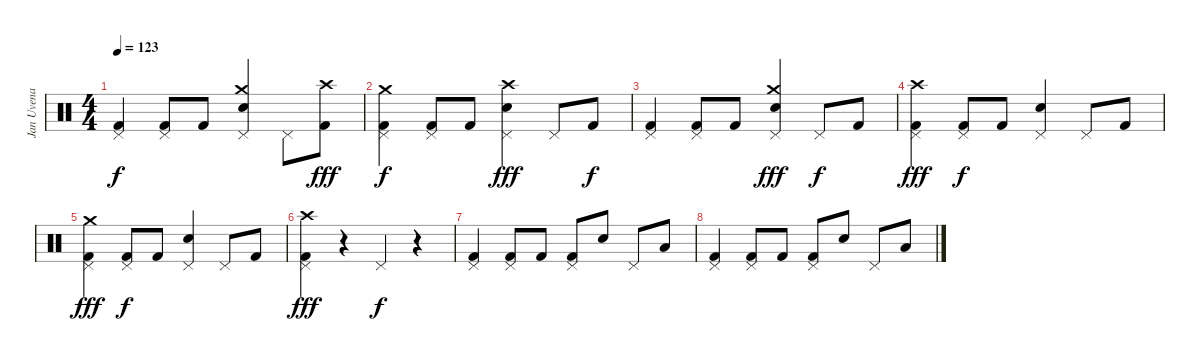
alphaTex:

\track ("Jan Uvena" "Jan Uvena") {instrument percussion}
\staff {score}
\articulation defaults
\ts (4 4)
\tempo 123
\clef neutral
\ks c
("Pedal Hi-Hat (hit)" "Kick (hit) 2").4{dy f} ("Pedal Hi-Hat (hit)" "Kick (hit) 2").8 "Kick (hit) 2".8 ("Crash medium (hit)" "Pedal Hi-Hat (hit)" "Snare (hit) 2").4 "Pedal Hi-Hat (hit)".8 ("Crash high (hit)" "Kick (hit) 2").8{dy fff} |
("Crash medium (hit)" "Pedal Hi-Hat (hit)" "Kick (hit) 2").4{dy f} ("Pedal Hi-Hat (hit)" "Kick (hit) 2").8 "Kick (hit) 2".8 ("Crash high (hit)" "Pedal Hi-Hat (hit)" "Snare (hit) 2").4{dy fff} "Pedal Hi-Hat (hit)".8 "Kick (hit) 2".8{dy f} |
("Pedal Hi-Hat (hit)" "Kick (hit) 2").4 ("Pedal Hi-Hat (hit)" "Kick (hit) 2").8 "Kick (hit) 2".8 ("Crash medium (hit)" "Pedal Hi-Hat (hit)" "Snare (hit) 2").4{dy fff} "Pedal Hi-Hat (hit)".8{dy f} "Kick (hit) 2".8 |
("Crash high (hit)" "Pedal Hi-Hat (hit)" "Kick (hit) 2").4{dy fff} ("Pedal Hi-Hat (hit)" "Kick (hit) 2").8{dy f} "Kick (hit) 2".8 ("Pedal Hi-Hat (hit)" "Snare (hit) 2").4 "Pedal Hi-Hat (hit)".8 "Kick (hit) 2".8 |
("Crash medium (hit)" "Pedal Hi-Hat (hit)" "Kick (hit) 2").4{dy fff} ("Pedal Hi-Hat (hit)" "Kick (hit) 2").8{dy f} "Kick (hit) 2".8 ("Pedal Hi-Hat (hit)" "Snare (hit) 2").4 "Pedal Hi-Hat (hit)".8 "Kick (hit) 2".8 |
("Crash high (hit)" "Pedal Hi-Hat (hit)" "Kick (hit) 2").4{dy fff} r.4 "Pedal Hi-Hat (hit)".4{dy f} r.4 |
("Pedal Hi-Hat (hit)" "Kick (hit) 2").4 ("Pedal Hi-Hat (hit)" "Kick (hit) 2").8 "Kick (hit) 2".8 ("Pedal Hi-Hat (hit)" "Kick (hit) 2").8 "Snare (hit) 2".8 "Pedal Hi-Hat (hit)".8 "Low Floor Tom (hit)".8 |
("Pedal Hi-Hat (hit)" "Kick (hit) 2").4 ("Pedal Hi-Hat (hit)" "Kick (hit) 2").8 "Kick (hit) 2".8 ("Pedal Hi-Hat (hit)" "Kick (hit) 2").8 "Snare (hit) 2".8 "Pedal Hi-Hat (hit)".8 "Low Floor Tom (hit)".8
